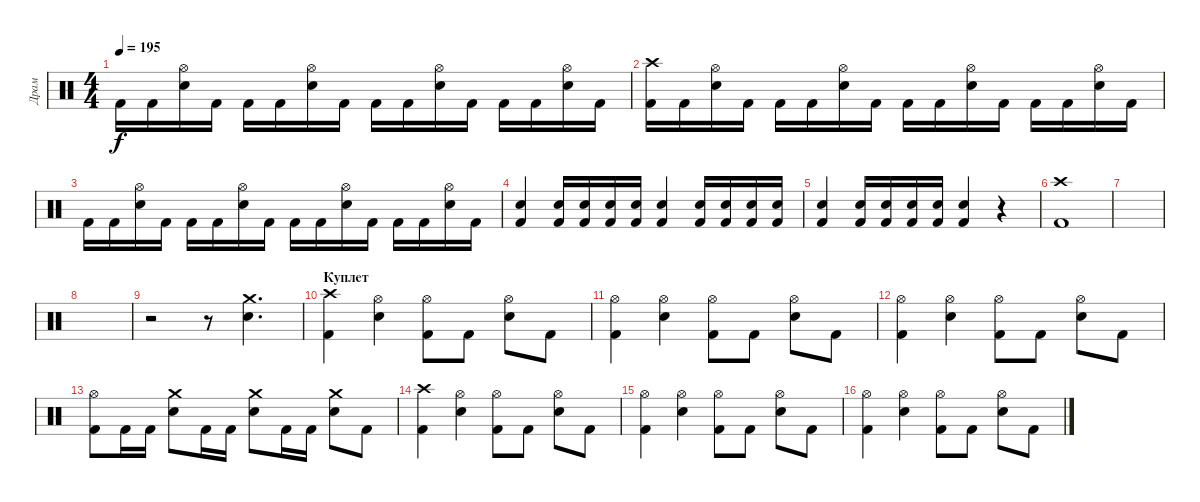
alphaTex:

\track ("Драм" "Драм") {instrument percussion}
\staff {score}
\articulation defaults
\ts (4 4)
\tempo 195
\clef neutral
\ks c "Kick (hit) 2".16{dy f} "Kick (hit) 2".16
("Hi-Hat (open)" "Snare (hit) 2").16 "Kick (hit) 2".16 "Kick (hit) 2".16 "Kick (hit) 2".16 ("Hi-Hat (open)" "Snare (hit) 2").16 "Kick (hit) 2".16 "Kick (hit) 2".16 "Kick (hit) 2".16 ("Hi-Hat (open)" "Snare (hit) 2").16 "Kick (hit) 2".16 "Kick (hit) 2".16 "Kick (hit) 2".16 ("Hi-Hat (open)" "Snare (hit) 2").16 "Kick (hit) 2".16 |
("Kick (hit) 2" "Crash high (hit)").16 "Kick (hit) 2".16 ("Hi-Hat (open)" "Snare (hit) 2").16 "Kick (hit) 2".16 "Kick (hit) 2".16 "Kick (hit) 2".16 ("Hi-Hat (open)" "Snare (hit) 2").16 "Kick (hit) 2".16 "Kick (hit) 2".16 "Kick (hit) 2".16 ("Hi-Hat (open)" "Snare (hit) 2").16 "Kick (hit) 2".16 "Kick (hit) 2".16 "Kick (hit) 2".16 ("Hi-Hat (open)" "Snare (hit) 2").16 "Kick (hit) 2".16 |
"Kick (hit) 2".16 "Kick (hit) 2".16 ("Hi-Hat (open)" "Snare (hit) 2").16 "Kick (hit) 2".16 "Kick (hit) 2".16 "Kick (hit) 2".16 ("Hi-Hat (open)" "Snare (hit) 2").16 "Kick (hit) 2".16 "Kick (hit) 2".16 "Kick (hit) 2".16 ("Hi-Hat (open)" "Snare (hit) 2").16 "Kick (hit) 2".16 "Kick (hit) 2".16 "Kick (hit) 2".16 ("Hi-Hat (open)" "Snare (hit) 2").16 "Kick (hit) 2".16 |
("Snare (hit) 2" "Kick (hit) 2").4 ("Snare (hit) 2" "Kick (hit) 2").16 ("Snare (hit) 2" "Kick (hit) 2").16 ("Snare (hit) 2" "Kick (hit) 2").16 ("Snare (hit) 2" "Kick (hit) 2").16 ("Snare (hit) 2" "Kick (hit) 2").4 ("Snare (hit) 2" "Kick (hit) 2").16 ("Snare (hit) 2" "Kick (hit) 2").16 ("Snare (hit) 2" "Kick (hit) 2").16 ("Snare (hit) 2" "Kick (hit) 2").16 |
("Snare (hit) 2" "Kick (hit) 2").4 ("Snare (hit) 2" "Kick (hit) 2").16 ("Snare (hit) 2" "Kick (hit) 2").16 ("Snare (hit) 2" "Kick (hit) 2").16 ("Snare (hit) 2" "Kick (hit) 2").16 ("Snare (hit) 2" "Kick (hit) 2").4 r.4 |
("Kick (hit) 2" "Crash high (hit)").1 |
|
|
r.2 r.8 ("Snare (hit) 2" "Crash medium (hit)").4{d} |
\section ("" "Куплет")
("Kick (hit) 2" "Crash high (hit)").4 ("Hi-Hat (open)" "Snare (hit) 2").4 ("Hi-Hat (open)" "Kick (hit) 2").8 "Kick (hit) 2".8 ("Hi-Hat (open)" "Snare (hit) 2").8 "Kick (hit) 2".8 |
("Hi-Hat (open)" "Kick (hit) 2").4 ("Hi-Hat (open)" "Snare (hit) 2").4 ("Hi-Hat (open)" "Kick (hit) 2").8 "Kick (hit) 2".8 ("Hi-Hat (open)" "Snare (hit) 2").8 "Kick (hit) 2".8 |
("Hi-Hat (open)" "Kick (hit) 2").4 ("Hi-Hat (open)" "Snare (hit) 2").4 ("Hi-Hat (open)" "Kick (hit) 2").8 "Kick (hit) 2".8 ("Hi-Hat (open)" "Snare (hit) 2").8 "Kick (hit) 2".8 |
("Hi-Hat (open)" "Kick (hit) 2").8 "Kick (hit) 2".16 "Kick (hit) 2".16 ("Snare (hit) 2" "Crash medium (hit)").8 "Kick (hit) 2".16 "Kick (hit) 2".16 ("Snare (hit) 2" "Crash medium (hit)").8 "Kick (hit) 2".16 "Kick (hit) 2".16 ("Snare (hit) 2" "Crash medium (hit)").8 "Kick (hit) 2".8 |
("Kick (hit) 2" "Crash high (hit)").4 ("Hi-Hat (open)" "Snare (hit) 2").4 ("Hi-Hat (open)" "Kick (hit) 2").8 "Kick (hit) 2".8 ("Hi-Hat (open)" "Snare (hit) 2").8 "Kick (hit) 2".8 |
("Hi-Hat (open)" "Kick (hit) 2").4 ("Hi-Hat (open)" "Snare (hit) 2").4 ("Hi-Hat (open)" "Kick (hit) 2").8 "Kick (hit) 2".8 ("Hi-Hat (open)" "Snare (hit) 2").8 "Kick (hit) 2".8 |
("Hi-Hat (open)" "Kick (hit) 2").4 ("Hi-Hat (open)" "Snare (hit) 2").4 ("Hi-Hat (open)" "Kick (hit) 2").8 "Kick (hit) 2".8 ("Hi-Hat (open)" "Snare (hit) 2").8 "Kick (hit) 2".8
